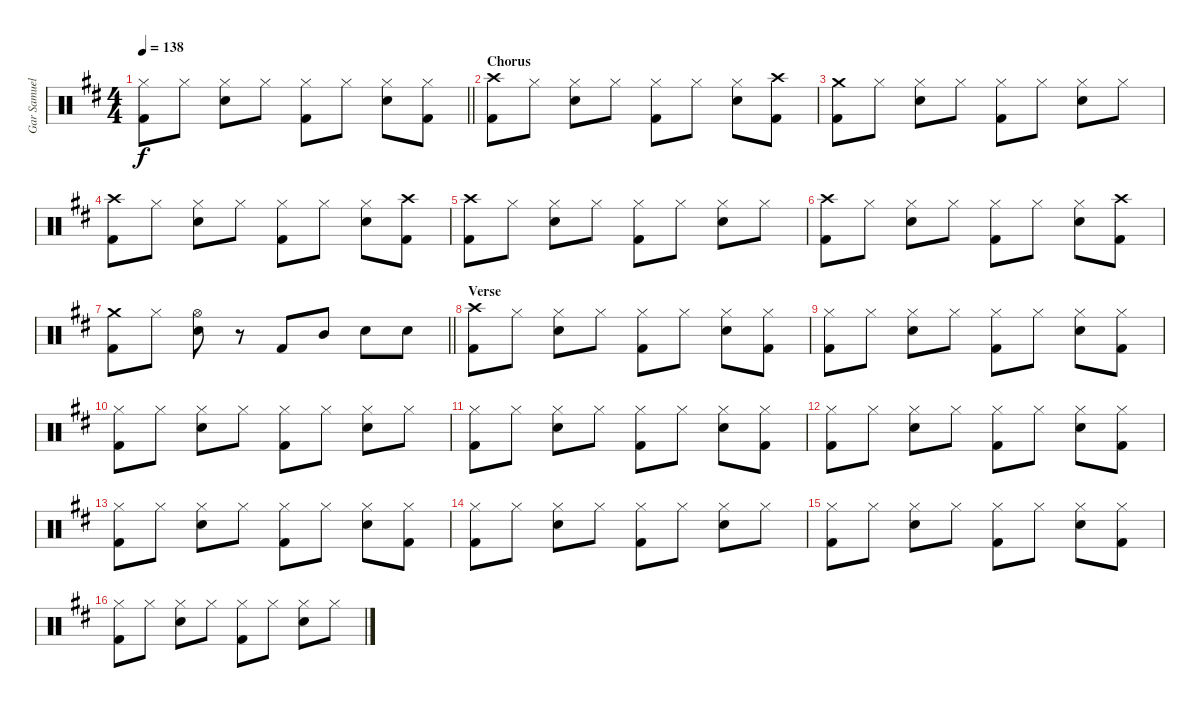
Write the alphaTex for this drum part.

\track ("Gar Samuelson" "Gar Samuel") {instrument percussion}
\staff {score}
\articulation defaults
\ts (4 4)
\tempo 138
\clef neutral
\barLineRight lightlight
\ks d
("Hi-Hat (closed)" "Kick (hit) 2").8{dy f} "Hi-Hat (closed)".8 ("Hi-Hat (closed)" "Snare (hit) 2").8 "Hi-Hat (closed)".8 ("Hi-Hat (closed)" "Kick (hit) 2").8 "Hi-Hat (closed)".8 ("Hi-Hat (closed)" "Snare (hit) 2").8 ("Hi-Hat (closed)" "Kick (hit) 2").8 |
\section ("" "Chorus")
("Crash high (hit)" "Kick (hit) 2").8 "Hi-Hat (closed)".8 ("Hi-Hat (closed)" "Snare (hit) 2").8 "Hi-Hat (closed)".8 ("Hi-Hat (closed)" "Kick (hit) 2").8 "Hi-Hat (closed)".8 ("Hi-Hat (closed)" "Snare (hit) 2").8 ("Crash high (hit)" "Kick (hit) 2").8 |
("Crash medium (hit)" "Kick (hit) 2").8 "Hi-Hat (closed)".8 ("Hi-Hat (closed)" "Snare (hit) 2").8 "Hi-Hat (closed)".8 ("Hi-Hat (closed)" "Kick (hit) 2").8 "Hi-Hat (closed)".8 ("Hi-Hat (closed)" "Snare (hit) 2").8 "Hi-Hat (closed)".8 |
("Crash high (hit)" "Kick (hit) 2").8 "Hi-Hat (closed)".8 ("Hi-Hat (closed)" "Snare (hit) 2").8 "Hi-Hat (closed)".8 ("Hi-Hat (closed)" "Kick (hit) 2").8 "Hi-Hat (closed)".8 ("Hi-Hat (closed)" "Snare (hit) 2").8 ("Crash high (hit)" "Kick (hit) 2").8 |
("Crash high (hit)" "Kick (hit) 2").8 "Hi-Hat (closed)".8 ("Hi-Hat (closed)" "Snare (hit) 2").8 "Hi-Hat (closed)".8 ("Hi-Hat (closed)" "Kick (hit) 2").8 "Hi-Hat (closed)".8 ("Hi-Hat (closed)" "Snare (hit) 2").8 "Hi-Hat (closed)".8 |
("Crash high (hit)" "Kick (hit) 2").8 "Hi-Hat (closed)".8 ("Hi-Hat (closed)" "Snare (hit) 2").8 "Hi-Hat (closed)".8 ("Hi-Hat (closed)" "Kick (hit) 2").8 "Hi-Hat (closed)".8 ("Hi-Hat (closed)" "Snare (hit) 2").8 ("Crash high (hit)" "Kick (hit) 2").8 |
\barLineRight lightlight
("Crash medium (hit)" "Kick (hit) 2").8 "Hi-Hat (closed)".8 ("Hi-Hat (open)" "Snare (hit) 2").8 r.8 "Kick (hit) 2".8 "Mid Tom (hit)".8 "Snare (hit) 2".8 "Snare (hit) 2".8 |
\section ("" "Verse")
("Crash high (hit)" "Kick (hit) 2").8 "Hi-Hat (closed)".8 ("Hi-Hat (closed)" "Snare (hit) 2").8 "Hi-Hat (closed)".8 ("Hi-Hat (closed)" "Kick (hit) 2").8 "Hi-Hat (closed)".8 ("Hi-Hat (closed)" "Snare (hit) 2").8 ("Hi-Hat (closed)" "Kick (hit) 2").8 |
("Hi-Hat (closed)" "Kick (hit) 2").8 "Hi-Hat (closed)".8 ("Hi-Hat (closed)" "Snare (hit) 2").8 "Hi-Hat (closed)".8 ("Hi-Hat (closed)" "Kick (hit) 2").8 "Hi-Hat (closed)".8 ("Hi-Hat (closed)" "Snare (hit) 2").8 ("Hi-Hat (closed)" "Kick (hit) 2").8 |
("Hi-Hat (closed)" "Kick (hit) 2").8 "Hi-Hat (closed)".8 ("Hi-Hat (closed)" "Snare (hit) 2").8 "Hi-Hat (closed)".8 ("Hi-Hat (closed)" "Kick (hit) 2").8 "Hi-Hat (closed)".8 ("Hi-Hat (closed)" "Snare (hit) 2").8 "Hi-Hat (closed)".8 |
("Hi-Hat (closed)" "Kick (hit) 2").8 "Hi-Hat (closed)".8 ("Hi-Hat (closed)" "Snare (hit) 2").8 "Hi-Hat (closed)".8 ("Hi-Hat (closed)" "Kick (hit) 2").8 "Hi-Hat (closed)".8 ("Hi-Hat (closed)" "Snare (hit) 2").8 ("Hi-Hat (closed)" "Kick (hit) 2").8 |
("Hi-Hat (closed)" "Kick (hit) 2").8 "Hi-Hat (closed)".8 ("Hi-Hat (closed)" "Snare (hit) 2").8 "Hi-Hat (closed)".8 ("Hi-Hat (closed)" "Kick (hit) 2").8 "Hi-Hat (closed)".8 ("Hi-Hat (closed)" "Snare (hit) 2").8 ("Hi-Hat (closed)" "Kick (hit) 2").8 |
("Hi-Hat (closed)" "Kick (hit) 2").8 "Hi-Hat (closed)".8 ("Hi-Hat (closed)" "Snare (hit) 2").8 "Hi-Hat (closed)".8 ("Hi-Hat (closed)" "Kick (hit) 2").8 "Hi-Hat (closed)".8 ("Hi-Hat (closed)" "Snare (hit) 2").8 ("Hi-Hat (closed)" "Kick (hit) 2").8 |
("Hi-Hat (closed)" "Kick (hit) 2").8 "Hi-Hat (closed)".8 ("Hi-Hat (closed)" "Snare (hit) 2").8 "Hi-Hat (closed)".8 ("Hi-Hat (closed)" "Kick (hit) 2").8 "Hi-Hat (closed)".8 ("Hi-Hat (closed)" "Snare (hit) 2").8 "Hi-Hat (closed)".8 |
("Hi-Hat (closed)" "Kick (hit) 2").8 "Hi-Hat (closed)".8 ("Hi-Hat (closed)" "Snare (hit) 2").8 "Hi-Hat (closed)".8 ("Hi-Hat (closed)" "Kick (hit) 2").8 "Hi-Hat (closed)".8 ("Hi-Hat (closed)" "Snare (hit) 2").8 ("Hi-Hat (closed)" "Kick (hit) 2").8 |
("Hi-Hat (closed)" "Kick (hit) 2").8 "Hi-Hat (closed)".8 ("Hi-Hat (closed)" "Snare (hit) 2").8 "Hi-Hat (closed)".8 ("Hi-Hat (closed)" "Kick (hit) 2").8 "Hi-Hat (closed)".8 ("Hi-Hat (closed)" "Snare (hit) 2").8 "Hi-Hat (closed)".8
